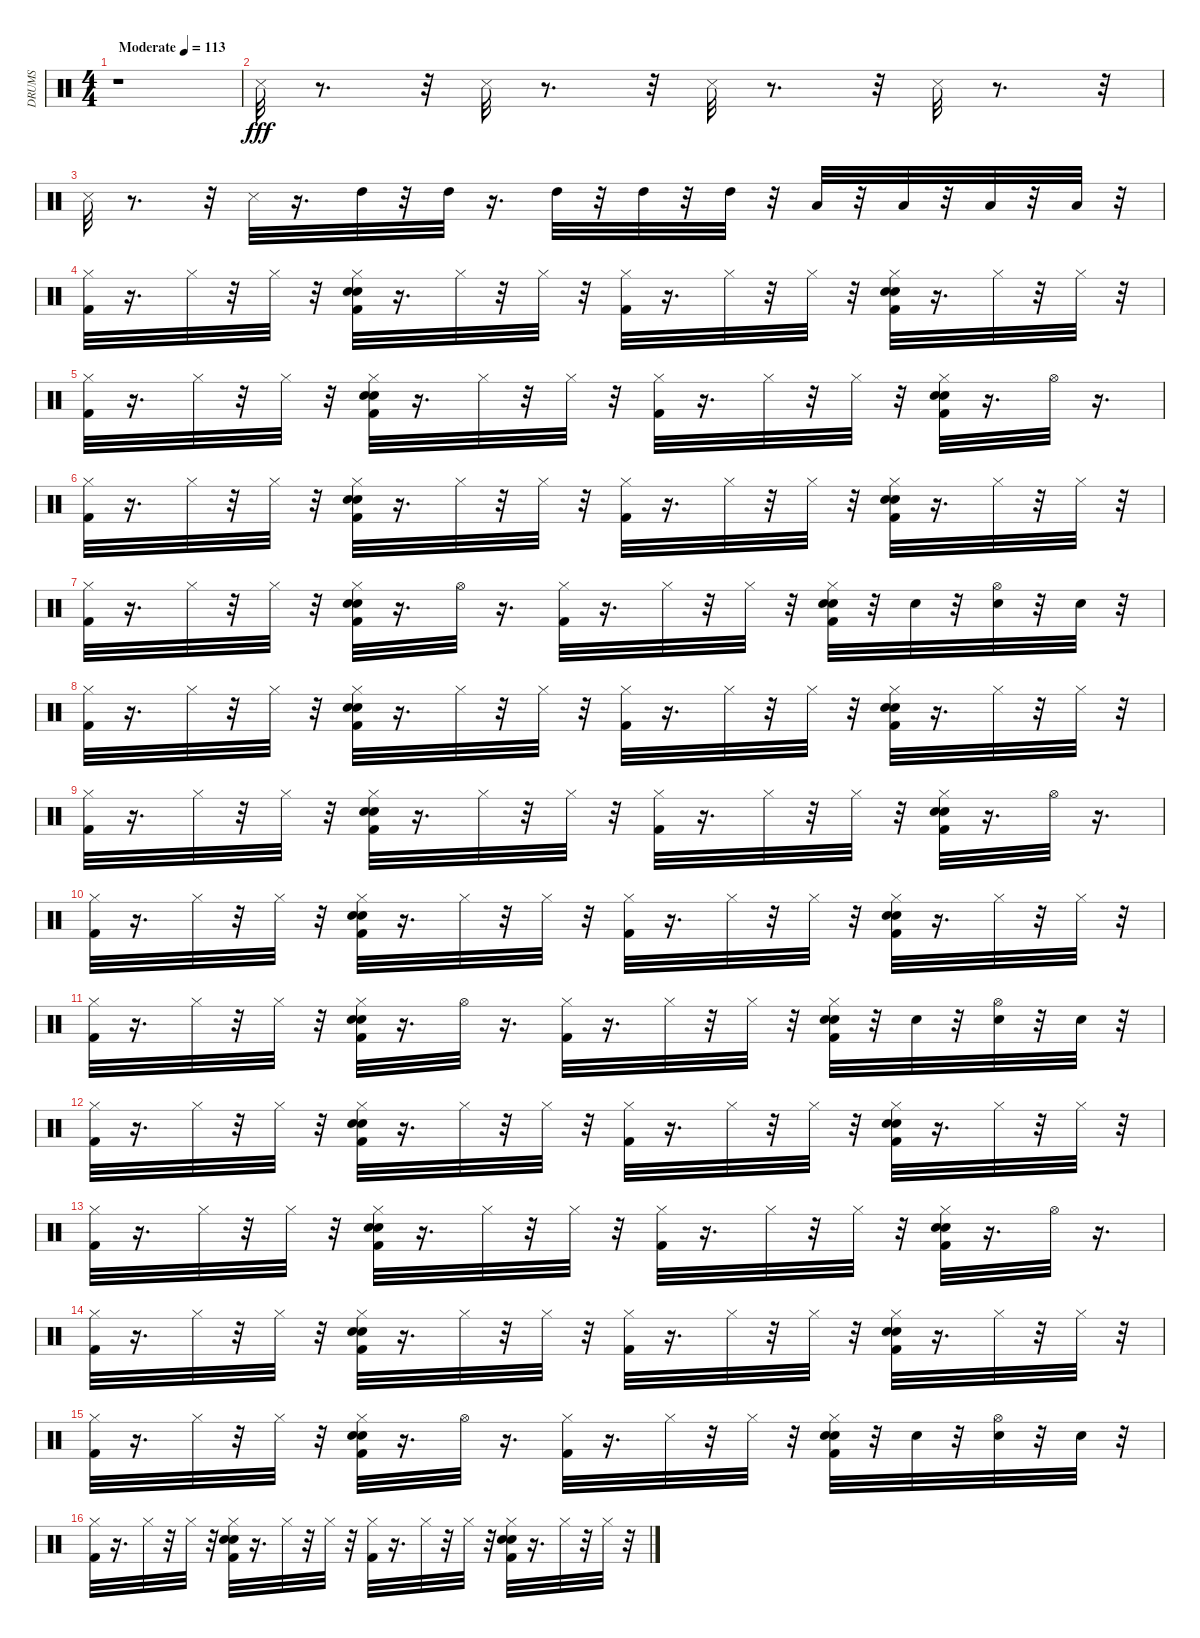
\track ("DRUMS" "DRUMS") {instrument percussion}
\staff {score}
\articulation defaults
\ts (4 4)
\tempo (113 "Moderate")
\clef neutral
\ks c
r.1{dy fff} |
"Snare (side stick) 3".32 r.8{d} r.32 "Snare (side stick) 3".32 r.8{d} r.32 "Snare (side stick) 3".32 r.8{d} r.32 "Snare (side stick) 3".32 r.8{d} r.32 |
"Snare (side stick) 3".32 r.8{d} r.32 "Snare (side stick) 3".32 r.16{d} "High Tom (hit)".32 r.32 "High Tom (hit)".32 r.16{d} "High Tom (hit)".32 r.32 "High Tom (hit)".32 r.32 "High Tom (hit)".32 r.32 "Low Tom (hit)".32 r.32 "Low Tom (hit)".32 r.32 "Low Floor Tom (hit)".32 r.32 "Low Floor Tom (hit)".32 r.32 |
("Hi-Hat (closed)" "Kick (hit) 2").32 r.16{d} "Hi-Hat (closed)".32 r.32 "Hi-Hat (closed)".32 r.32 ("Hi-Hat (closed)" "Snare (hit) 2" "Kick (hit) 2" "Hand Clap (hit)").32 r.16{d} "Hi-Hat (closed)".32 r.32 "Hi-Hat (closed)".32 r.32 ("Hi-Hat (closed)" "Kick (hit) 2").32 r.16{d} "Hi-Hat (closed)".32 r.32 "Hi-Hat (closed)".32 r.32 ("Hi-Hat (closed)" "Snare (hit) 2" "Kick (hit) 2" "Hand Clap (hit)").32 r.16{d} "Hi-Hat (closed)".32 r.32 "Hi-Hat (closed)".32 r.32 |
("Hi-Hat (closed)" "Kick (hit) 2").32 r.16{d} "Hi-Hat (closed)".32 r.32 "Hi-Hat (closed)".32 r.32 ("Hi-Hat (closed)" "Snare (hit) 2" "Kick (hit) 2" "Hand Clap (hit)").32 r.16{d} "Hi-Hat (closed)".32 r.32 "Hi-Hat (closed)".32 r.32 ("Hi-Hat (closed)" "Kick (hit) 2").32 r.16{d} "Hi-Hat (closed)".32 r.32 "Hi-Hat (closed)".32 r.32 ("Hi-Hat (closed)" "Snare (hit) 2" "Kick (hit) 2" "Hand Clap (hit)").32 r.16{d} "Hi-Hat (open)".32 r.16{d} |
("Hi-Hat (closed)" "Kick (hit) 2").32 r.16{d} "Hi-Hat (closed)".32 r.32 "Hi-Hat (closed)".32 r.32 ("Hi-Hat (closed)" "Snare (hit) 2" "Kick (hit) 2" "Hand Clap (hit)").32 r.16{d} "Hi-Hat (closed)".32 r.32 "Hi-Hat (closed)".32 r.32 ("Hi-Hat (closed)" "Kick (hit) 2").32 r.16{d} "Hi-Hat (closed)".32 r.32 "Hi-Hat (closed)".32 r.32 ("Hi-Hat (closed)" "Snare (hit) 2" "Kick (hit) 2" "Hand Clap (hit)").32 r.16{d} "Hi-Hat (closed)".32 r.32 "Hi-Hat (closed)".32 r.32 |
("Hi-Hat (closed)" "Kick (hit) 2").32 r.16{d} "Hi-Hat (closed)".32 r.32 "Hi-Hat (closed)".32 r.32 ("Hi-Hat (closed)" "Snare (hit) 2" "Kick (hit) 2" "Hand Clap (hit)").32 r.16{d} "Hi-Hat (open)".32 r.16{d} ("Hi-Hat (closed)" "Kick (hit) 2").32 r.16{d} "Hi-Hat (closed)".32 r.32 "Hi-Hat (closed)".32 r.32 ("Hi-Hat (closed)" "Snare (hit) 2" "Kick (hit) 2" "Hand Clap (hit)").32 r.32 "Hand Clap (hit)".32 r.32 ("Hi-Hat (open)" "Hand Clap (hit)").32 r.32 "Hand Clap (hit)".32 r.32 |
("Hi-Hat (closed)" "Kick (hit) 2").32 r.16{d} "Hi-Hat (closed)".32 r.32 "Hi-Hat (closed)".32 r.32 ("Hi-Hat (closed)" "Snare (hit) 2" "Kick (hit) 2" "Hand Clap (hit)").32 r.16{d} "Hi-Hat (closed)".32 r.32 "Hi-Hat (closed)".32 r.32 ("Hi-Hat (closed)" "Kick (hit) 2").32 r.16{d} "Hi-Hat (closed)".32 r.32 "Hi-Hat (closed)".32 r.32 ("Hi-Hat (closed)" "Snare (hit) 2" "Kick (hit) 2" "Hand Clap (hit)").32 r.16{d} "Hi-Hat (closed)".32 r.32 "Hi-Hat (closed)".32 r.32 |
("Hi-Hat (closed)" "Kick (hit) 2").32 r.16{d} "Hi-Hat (closed)".32 r.32 "Hi-Hat (closed)".32 r.32 ("Hi-Hat (closed)" "Snare (hit) 2" "Kick (hit) 2" "Hand Clap (hit)").32 r.16{d} "Hi-Hat (closed)".32 r.32 "Hi-Hat (closed)".32 r.32 ("Hi-Hat (closed)" "Kick (hit) 2").32 r.16{d} "Hi-Hat (closed)".32 r.32 "Hi-Hat (closed)".32 r.32 ("Hi-Hat (closed)" "Snare (hit) 2" "Kick (hit) 2" "Hand Clap (hit)").32 r.16{d} "Hi-Hat (open)".32 r.16{d} |
("Hi-Hat (closed)" "Kick (hit) 2").32 r.16{d} "Hi-Hat (closed)".32 r.32 "Hi-Hat (closed)".32 r.32 ("Hi-Hat (closed)" "Snare (hit) 2" "Kick (hit) 2" "Hand Clap (hit)").32 r.16{d} "Hi-Hat (closed)".32 r.32 "Hi-Hat (closed)".32 r.32 ("Hi-Hat (closed)" "Kick (hit) 2").32 r.16{d} "Hi-Hat (closed)".32 r.32 "Hi-Hat (closed)".32 r.32 ("Hi-Hat (closed)" "Snare (hit) 2" "Kick (hit) 2" "Hand Clap (hit)").32 r.16{d} "Hi-Hat (closed)".32 r.32 "Hi-Hat (closed)".32 r.32 |
("Hi-Hat (closed)" "Kick (hit) 2").32 r.16{d} "Hi-Hat (closed)".32 r.32 "Hi-Hat (closed)".32 r.32 ("Hi-Hat (closed)" "Snare (hit) 2" "Kick (hit) 2" "Hand Clap (hit)").32 r.16{d} "Hi-Hat (open)".32 r.16{d} ("Hi-Hat (closed)" "Kick (hit) 2").32 r.16{d} "Hi-Hat (closed)".32 r.32 "Hi-Hat (closed)".32 r.32 ("Hi-Hat (closed)" "Snare (hit) 2" "Kick (hit) 2" "Hand Clap (hit)").32 r.32 "Hand Clap (hit)".32 r.32 ("Hi-Hat (open)" "Hand Clap (hit)").32 r.32 "Hand Clap (hit)".32 r.32 |
("Hi-Hat (closed)" "Kick (hit) 2").32 r.16{d} "Hi-Hat (closed)".32 r.32 "Hi-Hat (closed)".32 r.32 ("Hi-Hat (closed)" "Snare (hit) 2" "Kick (hit) 2" "Hand Clap (hit)").32 r.16{d} "Hi-Hat (closed)".32 r.32 "Hi-Hat (closed)".32 r.32 ("Hi-Hat (closed)" "Kick (hit) 2").32 r.16{d} "Hi-Hat (closed)".32 r.32 "Hi-Hat (closed)".32 r.32 ("Hi-Hat (closed)" "Snare (hit) 2" "Kick (hit) 2" "Hand Clap (hit)").32 r.16{d} "Hi-Hat (closed)".32 r.32 "Hi-Hat (closed)".32 r.32 |
("Hi-Hat (closed)" "Kick (hit) 2").32 r.16{d} "Hi-Hat (closed)".32 r.32 "Hi-Hat (closed)".32 r.32 ("Hi-Hat (closed)" "Snare (hit) 2" "Kick (hit) 2" "Hand Clap (hit)").32 r.16{d} "Hi-Hat (closed)".32 r.32 "Hi-Hat (closed)".32 r.32 ("Hi-Hat (closed)" "Kick (hit) 2").32 r.16{d} "Hi-Hat (closed)".32 r.32 "Hi-Hat (closed)".32 r.32 ("Hi-Hat (closed)" "Snare (hit) 2" "Kick (hit) 2" "Hand Clap (hit)").32 r.16{d} "Hi-Hat (open)".32 r.16{d} |
("Hi-Hat (closed)" "Kick (hit) 2").32 r.16{d} "Hi-Hat (closed)".32 r.32 "Hi-Hat (closed)".32 r.32 ("Hi-Hat (closed)" "Snare (hit) 2" "Kick (hit) 2" "Hand Clap (hit)").32 r.16{d} "Hi-Hat (closed)".32 r.32 "Hi-Hat (closed)".32 r.32 ("Hi-Hat (closed)" "Kick (hit) 2").32 r.16{d} "Hi-Hat (closed)".32 r.32 "Hi-Hat (closed)".32 r.32 ("Hi-Hat (closed)" "Snare (hit) 2" "Kick (hit) 2" "Hand Clap (hit)").32 r.16{d} "Hi-Hat (closed)".32 r.32 "Hi-Hat (closed)".32 r.32 |
("Hi-Hat (closed)" "Kick (hit) 2").32 r.16{d} "Hi-Hat (closed)".32 r.32 "Hi-Hat (closed)".32 r.32 ("Hi-Hat (closed)" "Snare (hit) 2" "Kick (hit) 2" "Hand Clap (hit)").32 r.16{d} "Hi-Hat (open)".32 r.16{d} ("Hi-Hat (closed)" "Kick (hit) 2").32 r.16{d} "Hi-Hat (closed)".32 r.32 "Hi-Hat (closed)".32 r.32 ("Hi-Hat (closed)" "Snare (hit) 2" "Kick (hit) 2" "Hand Clap (hit)").32 r.32 "Hand Clap (hit)".32 r.32 ("Hi-Hat (open)" "Hand Clap (hit)").32 r.32 "Hand Clap (hit)".32 r.32 |
("Hi-Hat (closed)" "Kick (hit) 2").32 r.16{d} "Hi-Hat (closed)".32 r.32 "Hi-Hat (closed)".32 r.32 ("Hi-Hat (closed)" "Snare (hit) 2" "Kick (hit) 2" "Hand Clap (hit)").32 r.16{d} "Hi-Hat (closed)".32 r.32 "Hi-Hat (closed)".32 r.32 ("Hi-Hat (closed)" "Kick (hit) 2").32 r.16{d} "Hi-Hat (closed)".32 r.32 "Hi-Hat (closed)".32 r.32 ("Hi-Hat (closed)" "Snare (hit) 2" "Kick (hit) 2" "Hand Clap (hit)").32 r.16{d} "Hi-Hat (closed)".32 r.32 "Hi-Hat (closed)".32 r.32
